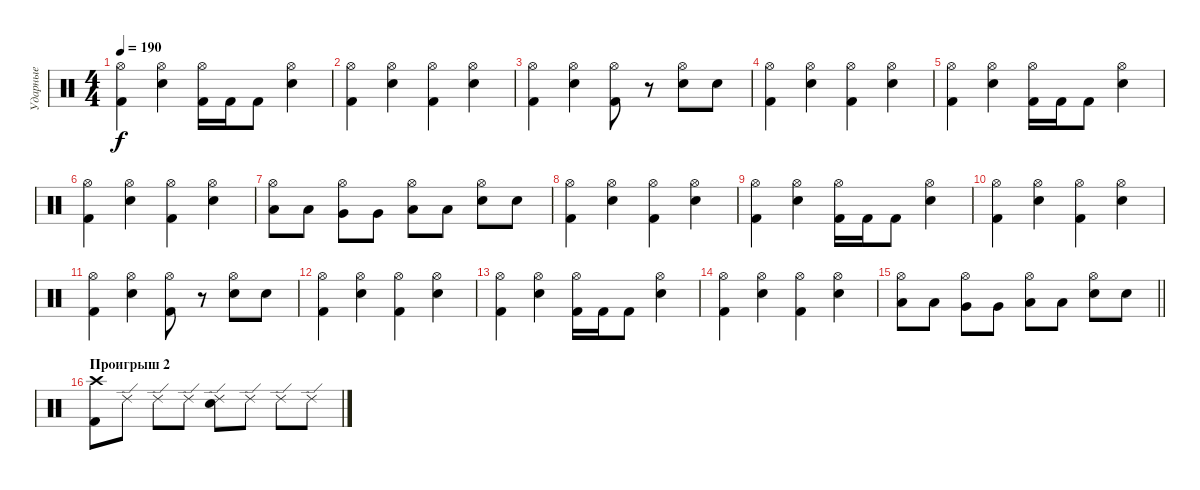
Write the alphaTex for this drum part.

\track ("Ударные" "Ударные") {instrument percussion}
\staff {score}
\articulation defaults
\ts (4 4)
\tempo 190
\clef neutral
\ks c
("Hi-Hat (open)" "Kick (hit) 2").4{dy f} ("Hi-Hat (open)" "Electric Snare (hit)").4 ("Hi-Hat (open)" "Kick (hit) 2").16 "Kick (hit) 2".16 "Kick (hit) 2".8 ("Hi-Hat (open)" "Electric Snare (hit)").4 |
("Hi-Hat (open)" "Kick (hit) 2").4 ("Hi-Hat (open)" "Electric Snare (hit)").4 ("Hi-Hat (open)" "Kick (hit) 2").4 ("Hi-Hat (open)" "Electric Snare (hit)").4 |
("Hi-Hat (open)" "Kick (hit) 2").4 ("Hi-Hat (open)" "Electric Snare (hit)").4 ("Hi-Hat (open)" "Kick (hit) 2").8 r.8 ("Hi-Hat (open)" "Electric Snare (hit)").8 "Snare (hit) 2".8 |
("Hi-Hat (open)" "Kick (hit) 2").4 ("Hi-Hat (open)" "Electric Snare (hit)").4 ("Hi-Hat (open)" "Kick (hit) 2").4 ("Hi-Hat (open)" "Electric Snare (hit)").4 |
("Hi-Hat (open)" "Kick (hit) 2").4 ("Hi-Hat (open)" "Electric Snare (hit)").4 ("Hi-Hat (open)" "Kick (hit) 2").16 "Kick (hit) 2".16 "Kick (hit) 2".8 ("Hi-Hat (open)" "Electric Snare (hit)").4 |
("Hi-Hat (open)" "Kick (hit) 2").4 ("Hi-Hat (open)" "Electric Snare (hit)").4 ("Hi-Hat (open)" "Kick (hit) 2").4 ("Hi-Hat (open)" "Electric Snare (hit)").4 |
("Hi-Hat (open)" "Low Tom (hit)").8 "Low Tom (hit)".8 ("Hi-Hat (open)" "Very Low Tom (hit)").8 "Very Low Tom (hit)".8 ("Hi-Hat (open)" "Low Floor Tom (hit)").8 "Low Floor Tom (hit)".8 ("Hi-Hat (open)" "Electric Snare (hit)").8 "Electric Snare (hit)".8 |
("Hi-Hat (open)" "Kick (hit) 2").4 ("Hi-Hat (open)" "Electric Snare (hit)").4 ("Hi-Hat (open)" "Kick (hit) 2").4 ("Hi-Hat (open)" "Electric Snare (hit)").4 |
("Hi-Hat (open)" "Kick (hit) 2").4 ("Hi-Hat (open)" "Electric Snare (hit)").4 ("Hi-Hat (open)" "Kick (hit) 2").16 "Kick (hit) 2".16 "Kick (hit) 2".8 ("Hi-Hat (open)" "Electric Snare (hit)").4 |
("Hi-Hat (open)" "Kick (hit) 2").4 ("Hi-Hat (open)" "Electric Snare (hit)").4 ("Hi-Hat (open)" "Kick (hit) 2").4 ("Hi-Hat (open)" "Electric Snare (hit)").4 |
("Hi-Hat (open)" "Kick (hit) 2").4 ("Hi-Hat (open)" "Electric Snare (hit)").4 ("Hi-Hat (open)" "Kick (hit) 2").8 r.8 ("Hi-Hat (open)" "Electric Snare (hit)").8 "Snare (hit) 2".8 |
("Hi-Hat (open)" "Kick (hit) 2").4 ("Hi-Hat (open)" "Electric Snare (hit)").4 ("Hi-Hat (open)" "Kick (hit) 2").4 ("Hi-Hat (open)" "Electric Snare (hit)").4 |
("Hi-Hat (open)" "Kick (hit) 2").4 ("Hi-Hat (open)" "Electric Snare (hit)").4 ("Hi-Hat (open)" "Kick (hit) 2").16 "Kick (hit) 2".16 "Kick (hit) 2".8 ("Hi-Hat (open)" "Electric Snare (hit)").4 |
("Hi-Hat (open)" "Kick (hit) 2").4 ("Hi-Hat (open)" "Electric Snare (hit)").4 ("Hi-Hat (open)" "Kick (hit) 2").4 ("Hi-Hat (open)" "Electric Snare (hit)").4 |
\barLineRight lightlight
("Hi-Hat (open)" "Low Tom (hit)").8 "Low Tom (hit)".8 ("Hi-Hat (open)" "Very Low Tom (hit)").8 "Very Low Tom (hit)".8 ("Hi-Hat (open)" "Low Floor Tom (hit)").8 "Low Floor Tom (hit)".8 ("Hi-Hat (open)" "Electric Snare (hit)").8 "Electric Snare (hit)".8 |
\section ("" "Проигрыш 2")
("Crash high (hit)" "Kick (hit) 2").8 "Ride (edge) 2".8 "Ride (edge) 2".8 "Ride (edge) 2".8 ("Electric Snare (hit)" "Ride (edge) 2").8 "Ride (edge) 2".8 "Ride (edge) 2".8 "Ride (edge) 2".8
